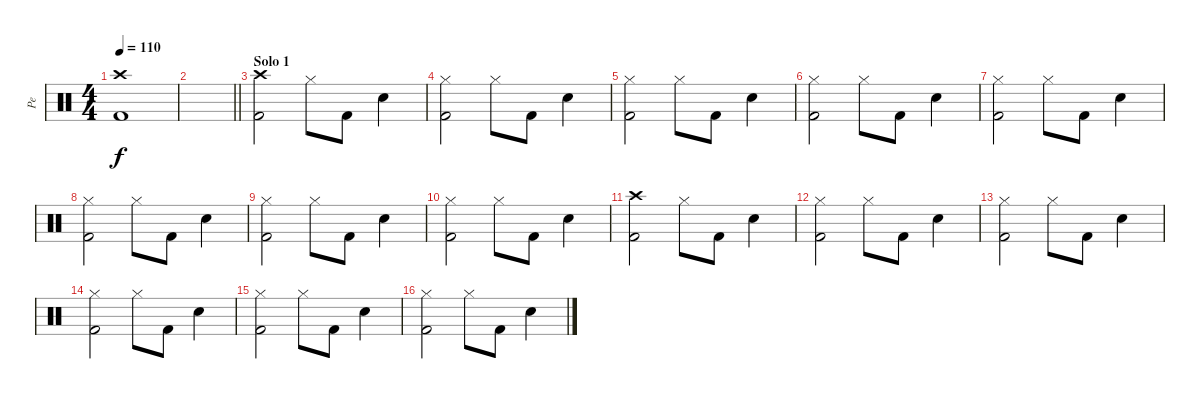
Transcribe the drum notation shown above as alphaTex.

\track ("Pe" "Pe") {instrument percussion}
\staff {score}
\articulation defaults
\ts (4 4)
\tempo 110
\clef neutral
\ks c
("Kick (hit) 2" "Crash high (hit)").1{dy f} |
\barLineRight lightlight
|
\section ("" "Solo 1")
("Kick (hit) 2" "Crash high (hit)").2 "Hi-Hat (closed)".8 "Kick (hit) 2".8 "Electric Snare (hit)".4 |
("Kick (hit) 2" "Hi-Hat (closed)").2 "Hi-Hat (closed)".8 "Kick (hit) 2".8 "Electric Snare (hit)".4 |
("Kick (hit) 2" "Hi-Hat (closed)").2 "Hi-Hat (closed)".8 "Kick (hit) 2".8 "Electric Snare (hit)".4 |
("Kick (hit) 2" "Hi-Hat (closed)").2 "Hi-Hat (closed)".8 "Kick (hit) 2".8 "Electric Snare (hit)".4 |
("Kick (hit) 2" "Hi-Hat (closed)").2 "Hi-Hat (closed)".8 "Kick (hit) 2".8 "Electric Snare (hit)".4 |
("Kick (hit) 2" "Hi-Hat (closed)").2 "Hi-Hat (closed)".8 "Kick (hit) 2".8 "Electric Snare (hit)".4 |
("Kick (hit) 2" "Hi-Hat (closed)").2 "Hi-Hat (closed)".8 "Kick (hit) 2".8 "Electric Snare (hit)".4 |
("Kick (hit) 2" "Hi-Hat (closed)").2 "Hi-Hat (closed)".8 "Kick (hit) 2".8 "Electric Snare (hit)".4 |
("Kick (hit) 2" "Crash high (hit)").2 "Hi-Hat (closed)".8 "Kick (hit) 2".8 "Electric Snare (hit)".4 |
("Kick (hit) 2" "Hi-Hat (closed)").2 "Hi-Hat (closed)".8 "Kick (hit) 2".8 "Electric Snare (hit)".4 |
("Kick (hit) 2" "Hi-Hat (closed)").2 "Hi-Hat (closed)".8 "Kick (hit) 2".8 "Electric Snare (hit)".4 |
("Kick (hit) 2" "Hi-Hat (closed)").2 "Hi-Hat (closed)".8 "Kick (hit) 2".8 "Electric Snare (hit)".4 |
("Kick (hit) 2" "Hi-Hat (closed)").2 "Hi-Hat (closed)".8 "Kick (hit) 2".8 "Electric Snare (hit)".4 |
("Kick (hit) 2" "Hi-Hat (closed)").2 "Hi-Hat (closed)".8 "Kick (hit) 2".8 "Electric Snare (hit)".4
